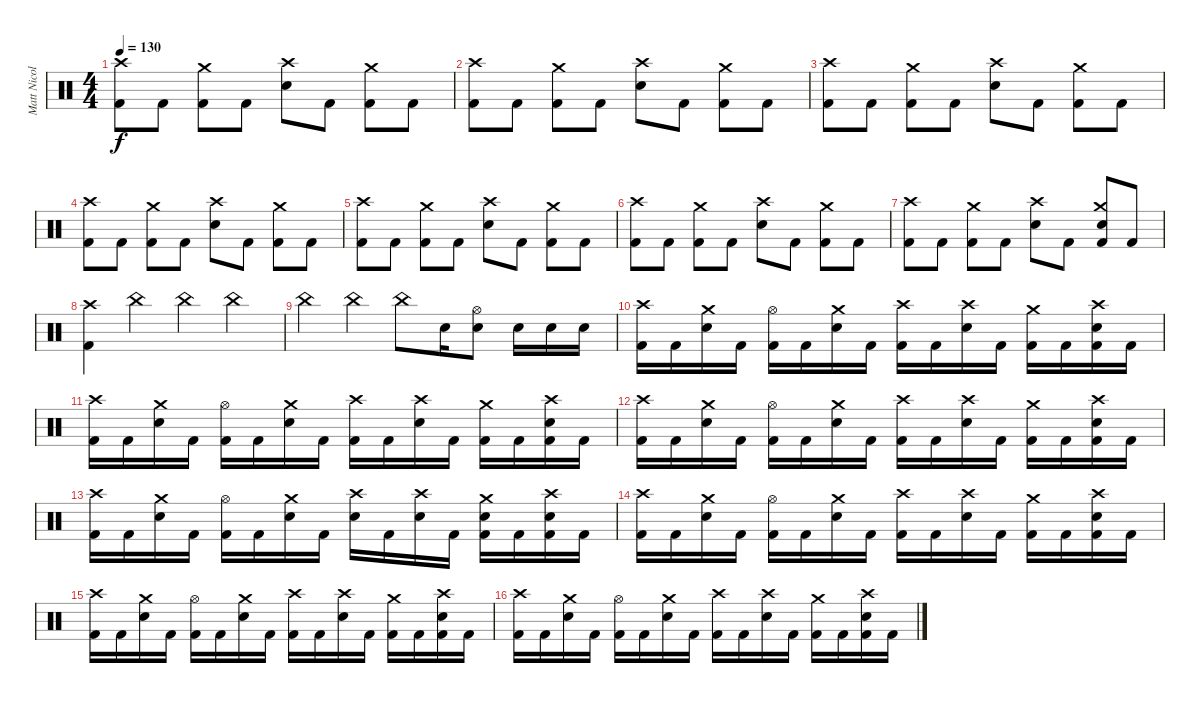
\track ("Matt Nicols" "Matt Nicol") {instrument percussion}
\staff {score}
\articulation defaults
\ts (4 4)
\tempo 130
\clef neutral
\ks c
("Crash high (hit)" "Kick (hit) 2").8{dy f} "Kick (hit) 2".8 ("Crash medium (hit)" "Kick (hit) 2").8 "Kick (hit) 2".8 ("Crash high (hit)" "Snare (hit) 2").8 "Kick (hit) 2".8 ("Crash medium (hit)" "Kick (hit) 2").8 "Kick (hit) 2".8 |
("Crash high (hit)" "Kick (hit) 2").8 "Kick (hit) 2".8 ("Crash medium (hit)" "Kick (hit) 2").8 "Kick (hit) 2".8 ("Crash high (hit)" "Snare (hit) 2").8 "Kick (hit) 2".8 ("Crash medium (hit)" "Kick (hit) 2").8 "Kick (hit) 2".8 |
("Crash high (hit)" "Kick (hit) 2").8 "Kick (hit) 2".8 ("Crash medium (hit)" "Kick (hit) 2").8 "Kick (hit) 2".8 ("Crash high (hit)" "Snare (hit) 2").8 "Kick (hit) 2".8 ("Crash medium (hit)" "Kick (hit) 2").8 "Kick (hit) 2".8 |
("Crash high (hit)" "Kick (hit) 2").8 "Kick (hit) 2".8 ("Crash medium (hit)" "Kick (hit) 2").8 "Kick (hit) 2".8 ("Crash high (hit)" "Snare (hit) 2").8 "Kick (hit) 2".8 ("Crash medium (hit)" "Kick (hit) 2").8 "Kick (hit) 2".8 |
("Crash high (hit)" "Kick (hit) 2").8 "Kick (hit) 2".8 ("Crash medium (hit)" "Kick (hit) 2").8 "Kick (hit) 2".8 ("Crash high (hit)" "Snare (hit) 2").8 "Kick (hit) 2".8 ("Crash medium (hit)" "Kick (hit) 2").8 "Kick (hit) 2".8 |
("Crash high (hit)" "Kick (hit) 2").8 "Kick (hit) 2".8 ("Crash medium (hit)" "Kick (hit) 2").8 "Kick (hit) 2".8 ("Crash high (hit)" "Snare (hit) 2").8 "Kick (hit) 2".8 ("Crash medium (hit)" "Kick (hit) 2").8 "Kick (hit) 2".8 |
("Crash high (hit)" "Kick (hit) 2").8 "Kick (hit) 2".8 ("Crash medium (hit)" "Kick (hit) 2").8 "Kick (hit) 2".8 ("Crash high (hit)" "Snare (hit) 2").8 "Kick (hit) 2".8 ("Crash medium (hit)" "Snare (hit) 2" "Kick (hit) 2").8 "Kick (hit) 2".8 |
("Crash high (hit)" "Kick (hit) 2").4 "China (hit)".4 "China (hit)".4 "China (hit)".4 |
"China (hit)".4 "China (hit)".4 "China (hit)".8 "Snare (hit) 2".16 ("Hi-Hat (open)" "Snare (hit) 2").8 "Snare (hit) 2".16 "Snare (hit) 2".16 "Snare (hit) 2".16 |
("Crash high (hit)" "Kick (hit) 2").16 "Kick (hit) 2".16 ("Crash medium (hit)" "Snare (hit) 2").16 "Kick (hit) 2".16 ("Hi-Hat (open)" "Kick (hit) 2").16 "Kick (hit) 2".16 ("Crash medium (hit)" "Snare (hit) 2").16 "Kick (hit) 2".16 ("Crash high (hit)" "Kick (hit) 2").16 "Kick (hit) 2".16 ("Crash high (hit)" "Snare (hit) 2").16 "Kick (hit) 2".16 ("Crash medium (hit)" "Kick (hit) 2").16 "Kick (hit) 2".16 ("Crash high (hit)" "Snare (hit) 2" "Kick (hit) 2").16 "Kick (hit) 2".16 |
("Crash high (hit)" "Kick (hit) 2").16 "Kick (hit) 2".16 ("Crash medium (hit)" "Snare (hit) 2").16 "Kick (hit) 2".16 ("Hi-Hat (open)" "Kick (hit) 2").16 "Kick (hit) 2".16 ("Crash medium (hit)" "Snare (hit) 2").16 "Kick (hit) 2".16 ("Crash high (hit)" "Kick (hit) 2").16 "Kick (hit) 2".16 ("Crash high (hit)" "Snare (hit) 2").16 "Kick (hit) 2".16 ("Crash medium (hit)" "Kick (hit) 2").16 "Kick (hit) 2".16 ("Crash high (hit)" "Snare (hit) 2" "Kick (hit) 2").16 "Kick (hit) 2".16 |
("Crash high (hit)" "Kick (hit) 2").16 "Kick (hit) 2".16 ("Crash medium (hit)" "Snare (hit) 2").16 "Kick (hit) 2".16 ("Hi-Hat (open)" "Kick (hit) 2").16 "Kick (hit) 2".16 ("Crash medium (hit)" "Snare (hit) 2").16 "Kick (hit) 2".16 ("Crash high (hit)" "Kick (hit) 2").16 "Kick (hit) 2".16 ("Crash high (hit)" "Snare (hit) 2").16 "Kick (hit) 2".16 ("Crash medium (hit)" "Kick (hit) 2").16 "Kick (hit) 2".16 ("Crash high (hit)" "Snare (hit) 2" "Kick (hit) 2").16 "Kick (hit) 2".16 |
("Crash high (hit)" "Kick (hit) 2").16 "Kick (hit) 2".16 ("Crash medium (hit)" "Snare (hit) 2").16 "Kick (hit) 2".16 ("Hi-Hat (open)" "Kick (hit) 2").16 "Kick (hit) 2".16 ("Crash medium (hit)" "Snare (hit) 2").16 "Kick (hit) 2".16 ("Crash high (hit)" "Snare (hit) 2").16 "Kick (hit) 2".16 ("Crash high (hit)" "Snare (hit) 2").16 "Kick (hit) 2".16 ("Crash medium (hit)" "Snare (hit) 2" "Kick (hit) 2").16 "Kick (hit) 2".16 ("Crash high (hit)" "Snare (hit) 2" "Kick (hit) 2").16 "Kick (hit) 2".16 |
("Crash high (hit)" "Kick (hit) 2").16 "Kick (hit) 2".16 ("Crash medium (hit)" "Snare (hit) 2").16 "Kick (hit) 2".16 ("Hi-Hat (open)" "Kick (hit) 2").16 "Kick (hit) 2".16 ("Crash medium (hit)" "Snare (hit) 2").16 "Kick (hit) 2".16 ("Crash high (hit)" "Kick (hit) 2").16 "Kick (hit) 2".16 ("Crash high (hit)" "Snare (hit) 2").16 "Kick (hit) 2".16 ("Crash medium (hit)" "Kick (hit) 2").16 "Kick (hit) 2".16 ("Crash high (hit)" "Snare (hit) 2" "Kick (hit) 2").16 "Kick (hit) 2".16 |
("Crash high (hit)" "Kick (hit) 2").16 "Kick (hit) 2".16 ("Crash medium (hit)" "Snare (hit) 2").16 "Kick (hit) 2".16 ("Hi-Hat (open)" "Kick (hit) 2").16 "Kick (hit) 2".16 ("Crash medium (hit)" "Snare (hit) 2").16 "Kick (hit) 2".16 ("Crash high (hit)" "Kick (hit) 2").16 "Kick (hit) 2".16 ("Crash high (hit)" "Snare (hit) 2").16 "Kick (hit) 2".16 ("Crash medium (hit)" "Kick (hit) 2").16 "Kick (hit) 2".16 ("Crash high (hit)" "Snare (hit) 2" "Kick (hit) 2").16 "Kick (hit) 2".16 |
("Crash high (hit)" "Kick (hit) 2").16 "Kick (hit) 2".16 ("Crash medium (hit)" "Snare (hit) 2").16 "Kick (hit) 2".16 ("Hi-Hat (open)" "Kick (hit) 2").16 "Kick (hit) 2".16 ("Crash medium (hit)" "Snare (hit) 2").16 "Kick (hit) 2".16 ("Crash high (hit)" "Kick (hit) 2").16 "Kick (hit) 2".16 ("Crash high (hit)" "Snare (hit) 2").16 "Kick (hit) 2".16 ("Crash medium (hit)" "Kick (hit) 2").16 "Kick (hit) 2".16 ("Crash high (hit)" "Snare (hit) 2" "Kick (hit) 2").16 "Kick (hit) 2".16
